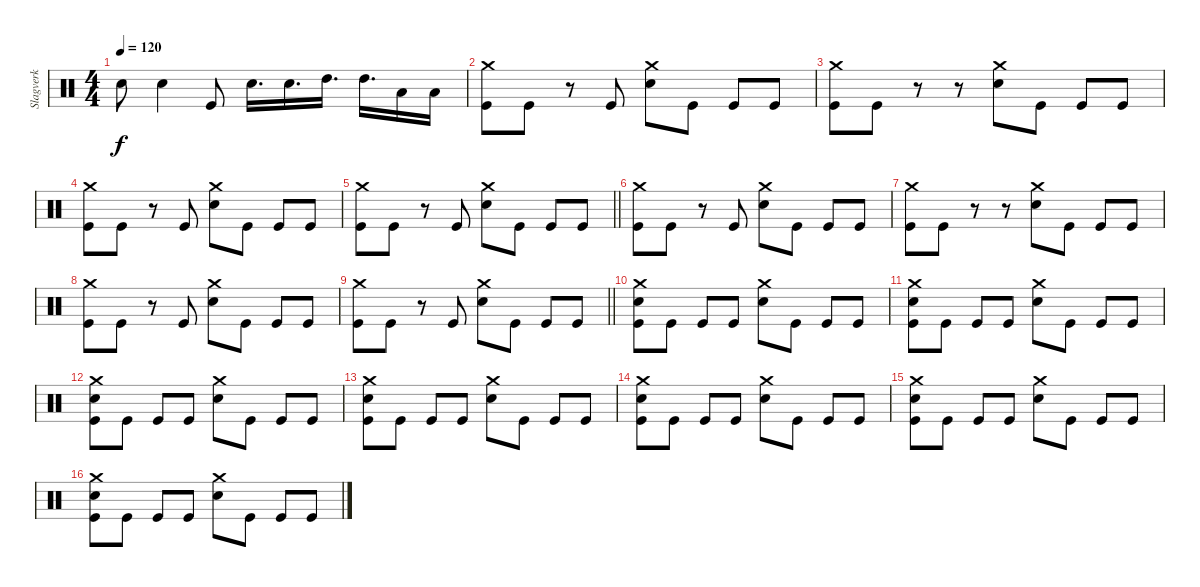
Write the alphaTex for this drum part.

\track ("Slagverk" "Slagverk") {instrument percussion}
\staff {score}
\articulation defaults
\ts (4 4)
\tempo 120
\clef neutral
\ks c "Snare (hit)"{t}.8{dy f} "Electric Snare (hit)".4 "Kick (hit)".8 "Electric Snare (hit)".16{d} "Electric Snare (hit)".16{d} "High Tom (hit)".16{d} "High Tom (hit)".16{d} "Low Tom (hit)".16 "Low Tom (hit)".16
|
("Crash medium (hit)" "Kick (hit)").8 "Kick (hit)".8 r.8 "Kick (hit)".8 ("Crash medium (hit)" "Electric Snare (hit)").8 "Kick (hit)".8 "Kick (hit)".8 "Kick (hit)".8 |
("Crash medium (hit)" "Kick (hit)").8 "Kick (hit)".8 r.8 r.8 ("Crash medium (hit)" "Electric Snare (hit)").8 "Kick (hit)".8 "Kick (hit)".8 "Kick (hit)".8 |
("Crash medium (hit)" "Kick (hit)").8 "Kick (hit)".8 r.8 "Kick (hit)".8 ("Crash medium (hit)" "Electric Snare (hit)").8 "Kick (hit)".8 "Kick (hit)".8 "Kick (hit)".8 |
\barLineRight lightlight
("Crash medium (hit)" "Kick (hit)").8 "Kick (hit)".8 r.8 "Kick (hit)".8 ("Crash medium (hit)" "Electric Snare (hit)").8 "Kick (hit)".8 "Kick (hit)".8 "Kick (hit)".8 |
("Crash medium (hit)" "Kick (hit)").8 "Kick (hit)".8 r.8 "Kick (hit)".8 ("Crash medium (hit)" "Electric Snare (hit)").8 "Kick (hit)".8 "Kick (hit)".8 "Kick (hit)".8 |
("Crash medium (hit)" "Kick (hit)").8 "Kick (hit)".8 r.8 r.8 ("Crash medium (hit)" "Electric Snare (hit)").8 "Kick (hit)".8 "Kick (hit)".8 "Kick (hit)".8 |
("Crash medium (hit)" "Kick (hit)").8 "Kick (hit)".8 r.8 "Kick (hit)".8 ("Crash medium (hit)" "Electric Snare (hit)").8 "Kick (hit)".8 "Kick (hit)".8 "Kick (hit)".8 |
\barLineRight lightlight
("Crash medium (hit)" "Kick (hit)").8 "Kick (hit)".8 r.8 "Kick (hit)".8 ("Crash medium (hit)" "Electric Snare (hit)").8 "Kick (hit)".8 "Kick (hit)".8 "Kick (hit)".8 |
("Crash medium (hit)" "Electric Snare (hit)" "Kick (hit)").8 "Kick (hit)".8 "Kick (hit)".8 "Kick (hit)".8 ("Crash medium (hit)" "Electric Snare (hit)").8 "Kick (hit)".8 "Kick (hit)".8 "Kick (hit)".8 |
("Crash medium (hit)" "Electric Snare (hit)" "Kick (hit)").8 "Kick (hit)".8 "Kick (hit)".8 "Kick (hit)".8 ("Crash medium (hit)" "Electric Snare (hit)").8 "Kick (hit)".8 "Kick (hit)".8 "Kick (hit)".8 |
("Crash medium (hit)" "Electric Snare (hit)" "Kick (hit)").8 "Kick (hit)".8 "Kick (hit)".8 "Kick (hit)".8 ("Crash medium (hit)" "Electric Snare (hit)").8 "Kick (hit)".8 "Kick (hit)".8 "Kick (hit)".8 |
("Crash medium (hit)" "Electric Snare (hit)" "Kick (hit)").8 "Kick (hit)".8 "Kick (hit)".8 "Kick (hit)".8 ("Crash medium (hit)" "Electric Snare (hit)").8 "Kick (hit)".8 "Kick (hit)".8 "Kick (hit)".8 |
("Crash medium (hit)" "Electric Snare (hit)" "Kick (hit)").8 "Kick (hit)".8 "Kick (hit)".8 "Kick (hit)".8 ("Crash medium (hit)" "Electric Snare (hit)").8 "Kick (hit)".8 "Kick (hit)".8 "Kick (hit)".8 |
("Crash medium (hit)" "Electric Snare (hit)" "Kick (hit)").8 "Kick (hit)".8 "Kick (hit)".8 "Kick (hit)".8 ("Crash medium (hit)" "Electric Snare (hit)").8 "Kick (hit)".8 "Kick (hit)".8 "Kick (hit)".8 |
("Crash medium (hit)" "Electric Snare (hit)" "Kick (hit)").8 "Kick (hit)".8 "Kick (hit)".8 "Kick (hit)".8 ("Crash medium (hit)" "Electric Snare (hit)").8 "Kick (hit)".8 "Kick (hit)".8 "Kick (hit)".8
